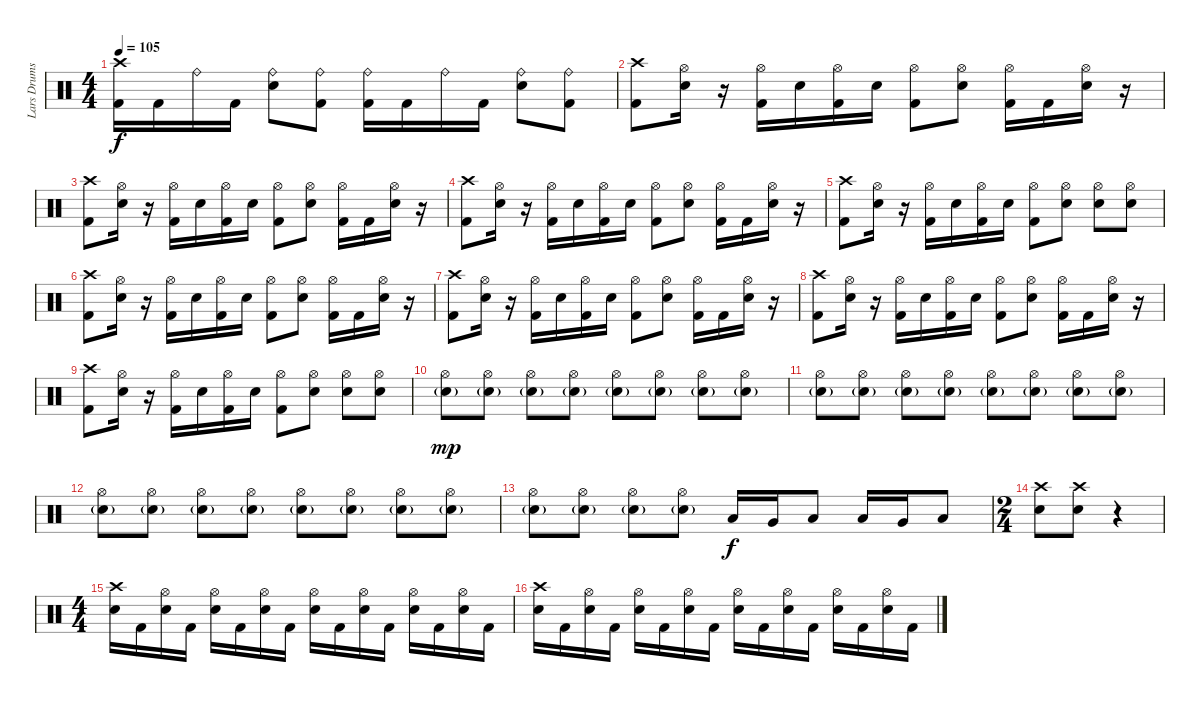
\track ("Lars Drums" "Lars Drums") {instrument percussion}
\staff {score}
\articulation defaults
\ts (4 4)
\tempo 105
\clef neutral
\ks c
("Crash high (hit)" "Kick (hit) 2").16{dy f} "Kick (hit) 2".16 "Ride (bell)".16 "Kick (hit) 2".16 ("Ride (bell)" "Snare (hit) 2").8 ("Ride (bell)" "Kick (hit) 2").8 ("Ride (bell)" "Kick (hit) 2").16 "Kick (hit) 2".16 "Ride (bell)".16 "Kick (hit) 2".16 ("Ride (bell)" "Snare (hit) 2").8 ("Ride (bell)" "Kick (hit) 2").8 |
("Crash high (hit)" "Kick (hit) 2").8 ("Hi-Hat (open)" "Snare (hit) 2").16 r.16 ("Hi-Hat (open)" "Kick (hit) 2").16 "Snare (hit) 2".16 ("Hi-Hat (open)" "Kick (hit) 2").16 "Snare (hit) 2".16 ("Hi-Hat (open)" "Kick (hit) 2").8 ("Hi-Hat (open)" "Snare (hit) 2").8 ("Hi-Hat (open)" "Kick (hit) 2").16 "Kick (hit) 2".16 ("Hi-Hat (open)" "Snare (hit) 2").16 r.16 |
("Crash high (hit)" "Kick (hit) 2").8 ("Hi-Hat (open)" "Snare (hit) 2").16 r.16 ("Hi-Hat (open)" "Kick (hit) 2").16 "Snare (hit) 2".16 ("Hi-Hat (open)" "Kick (hit) 2").16 "Snare (hit) 2".16 ("Hi-Hat (open)" "Kick (hit) 2").8 ("Hi-Hat (open)" "Snare (hit) 2").8 ("Hi-Hat (open)" "Kick (hit) 2").16 "Kick (hit) 2".16 ("Hi-Hat (open)" "Snare (hit) 2").16 r.16 |
("Crash high (hit)" "Kick (hit) 2").8 ("Hi-Hat (open)" "Snare (hit) 2").16 r.16 ("Hi-Hat (open)" "Kick (hit) 2").16 "Snare (hit) 2".16 ("Hi-Hat (open)" "Kick (hit) 2").16 "Snare (hit) 2".16 ("Hi-Hat (open)" "Kick (hit) 2").8 ("Hi-Hat (open)" "Snare (hit) 2").8 ("Hi-Hat (open)" "Kick (hit) 2").16 "Kick (hit) 2".16 ("Hi-Hat (open)" "Snare (hit) 2").16 r.16 |
("Crash high (hit)" "Kick (hit) 2").8 ("Hi-Hat (open)" "Snare (hit) 2").16 r.16 ("Hi-Hat (open)" "Kick (hit) 2").16 "Snare (hit) 2".16 ("Hi-Hat (open)" "Kick (hit) 2").16 "Snare (hit) 2".16 ("Hi-Hat (open)" "Kick (hit) 2").8 ("Hi-Hat (open)" "Snare (hit) 2").8 ("Hi-Hat (open)" "Snare (hit) 2").8 ("Hi-Hat (open)" "Snare (hit) 2").8 |
("Crash high (hit)" "Kick (hit) 2").8 ("Hi-Hat (open)" "Snare (hit) 2").16 r.16 ("Hi-Hat (open)" "Kick (hit) 2").16 "Snare (hit) 2".16 ("Hi-Hat (open)" "Kick (hit) 2").16 "Snare (hit) 2".16 ("Hi-Hat (open)" "Kick (hit) 2").8 ("Hi-Hat (open)" "Snare (hit) 2").8 ("Hi-Hat (open)" "Kick (hit) 2").16 "Kick (hit) 2".16 ("Hi-Hat (open)" "Snare (hit) 2").16 r.16 |
("Crash high (hit)" "Kick (hit) 2").8 ("Hi-Hat (open)" "Snare (hit) 2").16 r.16 ("Hi-Hat (open)" "Kick (hit) 2").16 "Snare (hit) 2".16 ("Hi-Hat (open)" "Kick (hit) 2").16 "Snare (hit) 2".16 ("Hi-Hat (open)" "Kick (hit) 2").8 ("Hi-Hat (open)" "Snare (hit) 2").8 ("Hi-Hat (open)" "Kick (hit) 2").16 "Kick (hit) 2".16 ("Hi-Hat (open)" "Snare (hit) 2").16 r.16 |
("Crash high (hit)" "Kick (hit) 2").8 ("Hi-Hat (open)" "Snare (hit) 2").16 r.16 ("Hi-Hat (open)" "Kick (hit) 2").16 "Snare (hit) 2".16 ("Hi-Hat (open)" "Kick (hit) 2").16 "Snare (hit) 2".16 ("Hi-Hat (open)" "Kick (hit) 2").8 ("Hi-Hat (open)" "Snare (hit) 2").8 ("Hi-Hat (open)" "Kick (hit) 2").16 "Kick (hit) 2".16 ("Hi-Hat (open)" "Snare (hit) 2").16 r.16 |
("Crash high (hit)" "Kick (hit) 2").8 ("Hi-Hat (open)" "Snare (hit) 2").16 r.16 ("Hi-Hat (open)" "Kick (hit) 2").16 "Snare (hit) 2".16 ("Hi-Hat (open)" "Kick (hit) 2").16 "Snare (hit) 2".16 ("Hi-Hat (open)" "Kick (hit) 2").8 ("Hi-Hat (open)" "Snare (hit) 2").8 ("Hi-Hat (open)" "Snare (hit) 2").8 ("Hi-Hat (open)" "Snare (hit) 2").8 |
("Hi-Hat (open)" "Snare (hit) 2"{g}).8{dy mp} ("Hi-Hat (open)" "Snare (hit) 2"{g}).8 ("Hi-Hat (open)" "Snare (hit) 2"{g}).8 ("Hi-Hat (open)" "Snare (hit) 2"{g}).8 ("Hi-Hat (open)" "Snare (hit) 2"{g}).8 ("Hi-Hat (open)" "Snare (hit) 2"{g}).8 ("Hi-Hat (open)" "Snare (hit) 2"{g}).8 ("Hi-Hat (open)" "Snare (hit) 2"{g}).8 |
("Hi-Hat (open)" "Snare (hit) 2"{g}).8 ("Hi-Hat (open)" "Snare (hit) 2"{g}).8 ("Hi-Hat (open)" "Snare (hit) 2"{g}).8 ("Hi-Hat (open)" "Snare (hit) 2"{g}).8 ("Hi-Hat (open)" "Snare (hit) 2"{g}).8 ("Hi-Hat (open)" "Snare (hit) 2"{g}).8 ("Hi-Hat (open)" "Snare (hit) 2"{g}).8 ("Hi-Hat (open)" "Snare (hit) 2"{g}).8 |
("Hi-Hat (open)" "Snare (hit) 2"{g}).8 ("Hi-Hat (open)" "Snare (hit) 2"{g}).8 ("Hi-Hat (open)" "Snare (hit) 2"{g}).8 ("Hi-Hat (open)" "Snare (hit) 2"{g}).8 ("Hi-Hat (open)" "Snare (hit) 2"{g}).8 ("Hi-Hat (open)" "Snare (hit) 2"{g}).8 ("Hi-Hat (open)" "Snare (hit) 2"{g}).8 ("Hi-Hat (open)" "Snare (hit) 2"{g}).8 |
("Hi-Hat (open)" "Snare (hit) 2"{g}).8 ("Hi-Hat (open)" "Snare (hit) 2"{g}).8 ("Hi-Hat (open)" "Snare (hit) 2"{g}).8 ("Hi-Hat (open)" "Snare (hit) 2"{g}).8 "Low Floor Tom (hit)".16{dy f} "Very Low Tom (hit)".16 "Low Floor Tom (hit)".8 "Low Floor Tom (hit)".16 "Very Low Tom (hit)".16 "Low Floor Tom (hit)".8 |
\ts (2 4)
("Crash high (hit)" "Snare (hit) 2").8 ("Crash high (hit)" "Snare (hit) 2").8 r.4 |
\ts (4 4)
("Crash high (hit)" "Snare (hit) 2").16 "Kick (hit) 2".16 ("Hi-Hat (open)" "Snare (hit) 2").16 "Kick (hit) 2".16 ("Hi-Hat (open)" "Snare (hit) 2").16 "Kick (hit) 2".16 ("Hi-Hat (open)" "Snare (hit) 2").16 "Kick (hit) 2".16 ("Hi-Hat (open)" "Snare (hit) 2").16 "Kick (hit) 2".16 ("Hi-Hat (open)" "Snare (hit) 2").16 "Kick (hit) 2".16 ("Hi-Hat (open)" "Snare (hit) 2").16 "Kick (hit) 2".16 ("Hi-Hat (open)" "Snare (hit) 2").16 "Kick (hit) 2".16 |
("Crash high (hit)" "Snare (hit) 2").16 "Kick (hit) 2".16 ("Hi-Hat (open)" "Snare (hit) 2").16 "Kick (hit) 2".16 ("Hi-Hat (open)" "Snare (hit) 2").16 "Kick (hit) 2".16 ("Hi-Hat (open)" "Snare (hit) 2").16 "Kick (hit) 2".16 ("Hi-Hat (open)" "Snare (hit) 2").16 "Kick (hit) 2".16 ("Hi-Hat (open)" "Snare (hit) 2").16 "Kick (hit) 2".16 ("Hi-Hat (open)" "Snare (hit) 2").16 "Kick (hit) 2".16 ("Hi-Hat (open)" "Snare (hit) 2").16 "Kick (hit) 2".16
